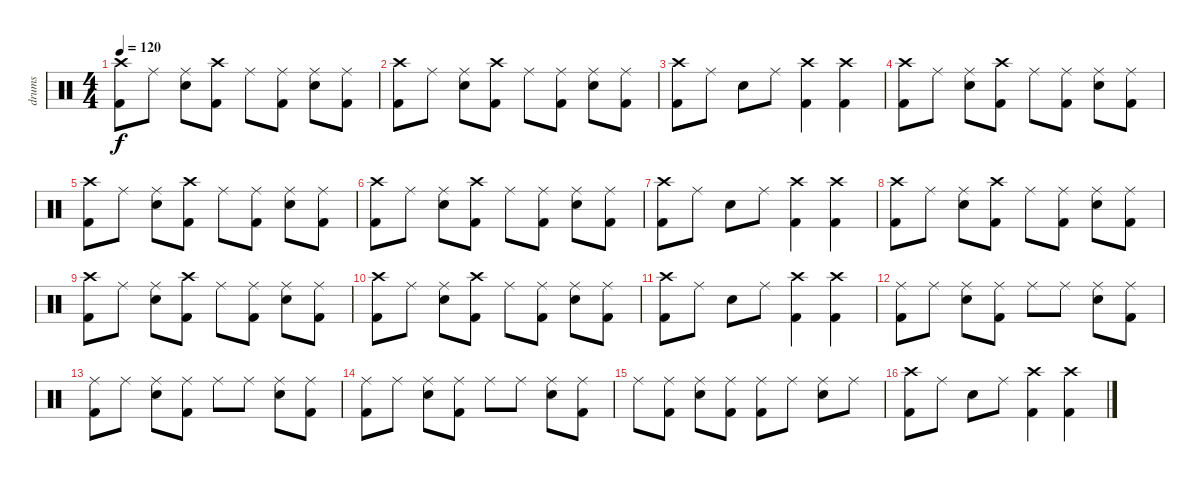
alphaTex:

\track ("drums" "drums") {instrument percussion}
\staff {score}
\articulation defaults
\ts (4 4)
\tempo 120
\clef neutral
\ks c
("Crash high (hit)" "Kick (hit) 2").8{dy f} "Ride (middle)".8 ("Ride (middle)" "Snare (hit) 2").8 ("Crash high (hit)" "Kick (hit) 2").8 "Ride (middle)".8 ("Ride (middle)" "Kick (hit) 2").8 ("Ride (middle)" "Snare (hit) 2").8 ("Ride (middle)" "Kick (hit) 2").8 |
("Crash high (hit)" "Kick (hit) 2").8 "Ride (middle)".8 ("Ride (middle)" "Snare (hit) 2").8 ("Crash high (hit)" "Kick (hit) 2").8 "Ride (middle)".8 ("Ride (middle)" "Kick (hit) 2").8 ("Ride (middle)" "Snare (hit) 2").8 ("Ride (middle)" "Kick (hit) 2").8 |
("Crash high (hit)" "Kick (hit) 2").8 "Ride (middle)".8 "Snare (hit) 2".8 "Ride (middle)".8 ("Crash high (hit)" "Kick (hit) 2").4 ("Crash high (hit)" "Kick (hit) 2").4 |
("Crash high (hit)" "Kick (hit) 2").8 "Ride (middle)".8 ("Ride (middle)" "Snare (hit) 2").8 ("Crash high (hit)" "Kick (hit) 2").8 "Ride (middle)".8 ("Ride (middle)" "Kick (hit) 2").8 ("Ride (middle)" "Snare (hit) 2").8 ("Ride (middle)" "Kick (hit) 2").8 |
("Crash high (hit)" "Kick (hit) 2").8 "Ride (middle)".8 ("Ride (middle)" "Snare (hit) 2").8 ("Crash high (hit)" "Kick (hit) 2").8 "Ride (middle)".8 ("Ride (middle)" "Kick (hit) 2").8 ("Ride (middle)" "Snare (hit) 2").8 ("Ride (middle)" "Kick (hit) 2").8 |
("Crash high (hit)" "Kick (hit) 2").8 "Ride (middle)".8 ("Ride (middle)" "Snare (hit) 2").8 ("Crash high (hit)" "Kick (hit) 2").8 "Ride (middle)".8 ("Ride (middle)" "Kick (hit) 2").8 ("Ride (middle)" "Snare (hit) 2").8 ("Ride (middle)" "Kick (hit) 2").8 |
("Kick (hit) 2" "Crash high (hit)").8 "Ride (middle)".8 "Snare (hit) 2".8 "Ride (middle)".8 ("Kick (hit) 2" "Crash high (hit)").4 ("Kick (hit) 2" "Crash high (hit)").4 |
("Crash high (hit)" "Kick (hit) 2").8 "Ride (middle)".8 ("Ride (middle)" "Snare (hit) 2").8 ("Crash high (hit)" "Kick (hit) 2").8 "Ride (middle)".8 ("Ride (middle)" "Kick (hit) 2").8 ("Ride (middle)" "Snare (hit) 2").8 ("Ride (middle)" "Kick (hit) 2").8 |
("Crash high (hit)" "Kick (hit) 2").8 "Ride (middle)".8 ("Ride (middle)" "Snare (hit) 2").8 ("Crash high (hit)" "Kick (hit) 2").8 "Ride (middle)".8 ("Ride (middle)" "Kick (hit) 2").8 ("Ride (middle)" "Snare (hit) 2").8 ("Ride (middle)" "Kick (hit) 2").8 |
("Crash high (hit)" "Kick (hit) 2").8 "Ride (middle)".8 ("Ride (middle)" "Snare (hit) 2").8 ("Crash high (hit)" "Kick (hit) 2").8 "Ride (middle)".8 ("Ride (middle)" "Kick (hit) 2").8 ("Ride (middle)" "Snare (hit) 2").8 ("Ride (middle)" "Kick (hit) 2").8 |
("Crash high (hit)" "Kick (hit) 2").8 "Ride (middle)".8 "Snare (hit) 2".8 "Ride (middle)".8 ("Crash high (hit)" "Kick (hit) 2").4 ("Crash high (hit)" "Kick (hit) 2").4 |
("Ride (middle)" "Kick (hit) 2").8 "Ride (middle)".8 ("Ride (middle)" "Snare (hit) 2").8 ("Ride (middle)" "Kick (hit) 2").8 "Ride (middle)".8 "Ride (middle)".8 ("Ride (middle)" "Snare (hit) 2").8 ("Ride (middle)" "Kick (hit) 2").8 |
("Ride (middle)" "Kick (hit) 2").8 "Ride (middle)".8 ("Ride (middle)" "Snare (hit) 2").8 ("Ride (middle)" "Kick (hit) 2").8 "Ride (middle)".8 "Ride (middle)".8 ("Ride (middle)" "Snare (hit) 2").8 ("Ride (middle)" "Kick (hit) 2").8 |
("Ride (middle)" "Kick (hit) 2").8 "Ride (middle)".8 ("Ride (middle)" "Snare (hit) 2").8 ("Ride (middle)" "Kick (hit) 2").8 "Ride (middle)".8 "Ride (middle)".8 ("Ride (middle)" "Snare (hit) 2").8 ("Ride (middle)" "Kick (hit) 2").8 |
"Ride (middle)".8 ("Ride (middle)" "Kick (hit) 2").8 ("Ride (middle)" "Snare (hit) 2").8 ("Ride (middle)" "Kick (hit) 2").8 ("Ride (middle)" "Kick (hit) 2").8 "Ride (middle)".8 ("Ride (middle)" "Snare (hit) 2").8 "Ride (middle)".8 |
("Kick (hit) 2" "Crash high (hit)").8 "Ride (middle)".8 "Snare (hit) 2".8 "Ride (middle)".8 ("Kick (hit) 2" "Crash high (hit)").4 ("Kick (hit) 2" "Crash high (hit)").4
